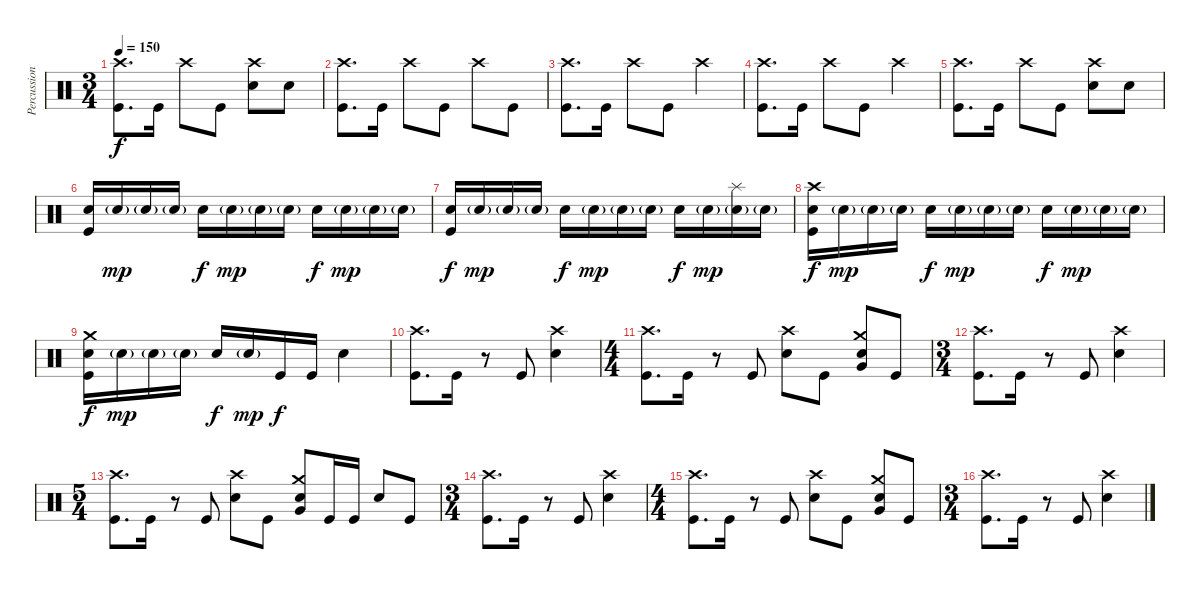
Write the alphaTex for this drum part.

\track ("Percussion" "Percussion") {instrument percussion}
\staff {score}
\articulation defaults
\ts (3 4)
\tempo 150
\clef neutral
\ks c
("Crash high (hit)" "Kick (hit)").8{d dy f} "Kick (hit)".16 "Crash high (hit)".8 "Kick (hit)".8 ("Crash high (hit)" "Snare (hit) 2").8 "Snare (hit) 2".8 |
("Crash high (hit)" "Kick (hit)").8{d} "Kick (hit)".16 "Crash high (hit)".8 "Kick (hit)".8 "Crash high (hit)".8 "Kick (hit)".8 |
("Crash high (hit)" "Kick (hit)").8{d} "Kick (hit)".16 "Crash high (hit)".8 "Kick (hit)".8 "Crash high (hit)".4 |
("Crash high (hit)" "Kick (hit)").8{d} "Kick (hit)".16 "Crash high (hit)".8 "Kick (hit)".8 "Crash high (hit)".4 |
("Crash high (hit)" "Kick (hit)").8{d} "Kick (hit)".16 "Crash high (hit)".8 "Kick (hit)".8 ("Crash high (hit)" "Snare (hit) 2").8 "Snare (hit) 2".8 |
("Snare (hit) 2" "Kick (hit)").16 "Snare (hit) 2"{g}.16{dy mp} "Snare (hit) 2"{g}.16 "Snare (hit) 2"{g}.16 "Snare (hit) 2".16{dy f} "Snare (hit) 2"{g}.16{dy mp} "Snare (hit) 2"{g}.16 "Snare (hit) 2"{g}.16 "Snare (hit) 2".16{dy f} "Snare (hit) 2"{g}.16{dy mp} "Snare (hit) 2"{g}.16 "Snare (hit) 2"{g}.16 |
("Snare (hit) 2" "Kick (hit)").16{dy f} "Snare (hit) 2"{g}.16{dy mp} "Snare (hit) 2"{g}.16 "Snare (hit) 2"{g}.16 "Snare (hit) 2".16{dy f} "Snare (hit) 2"{g}.16{dy mp} "Snare (hit) 2"{g}.16 "Snare (hit) 2"{g}.16 "Snare (hit) 2".16{dy f} "Snare (hit) 2"{g}.16{dy mp} ("Splash (hit)" "Snare (hit) 2"{g}).16 "Snare (hit) 2"{g}.16 |
("Crash high (hit)" "Snare (hit) 2" "Kick (hit)").16{dy f} "Snare (hit) 2"{g}.16{dy mp} "Snare (hit) 2"{g}.16 "Snare (hit) 2"{g}.16 "Snare (hit) 2".16{dy f} "Snare (hit) 2"{g}.16{dy mp} "Snare (hit) 2"{g}.16 "Snare (hit) 2"{g}.16 "Snare (hit) 2".16{dy f} "Snare (hit) 2"{g}.16{dy mp} "Snare (hit) 2"{g}.16 "Snare (hit) 2"{g}.16 |
("Crash medium (hit)" "Snare (hit) 2" "Kick (hit)").16{dy f} "Snare (hit) 2"{g}.16{dy mp} "Snare (hit) 2"{g}.16 "Snare (hit) 2"{g}.16 "Snare (hit) 2".16{dy f} "Snare (hit) 2"{g}.16{dy mp} "Kick (hit)".16{dy f} "Kick (hit)".16 "Snare (hit) 2".4 |
("Crash high (hit)" "Kick (hit)").8{d} "Kick (hit)".16 r.8 "Kick (hit)".8 ("Crash high (hit)" "Snare (hit) 2").4 |
\ts (4 4)
("Crash high (hit)" "Kick (hit)").8{d} "Kick (hit)".16 r.8 "Kick (hit)".8 ("Crash high (hit)" "Snare (hit) 2").8 "Kick (hit)".8 ("Crash medium (hit)" "Very Low Tom (hit)" "Snare (hit) 2").8 "Kick (hit)".8 |
\ts (3 4)
("Crash high (hit)" "Kick (hit)").8{d} "Kick (hit)".16 r.8 "Kick (hit)".8 ("Crash high (hit)" "Snare (hit) 2").4 |
\ts (5 4)
("Crash high (hit)" "Kick (hit)").8{d} "Kick (hit)".16 r.8 "Kick (hit)".8 ("Crash high (hit)" "Snare (hit) 2").8 "Kick (hit)".8 ("Crash medium (hit)" "Very Low Tom (hit)" "Snare (hit) 2").8 "Kick (hit)".16 "Kick (hit)".16 "Snare (hit) 2".8 "Kick (hit)".8 |
\ts (3 4)
("Crash high (hit)" "Kick (hit)").8{d} "Kick (hit)".16 r.8 "Kick (hit)".8 ("Crash high (hit)" "Snare (hit) 2").4 |
\ts (4 4)
("Crash high (hit)" "Kick (hit)").8{d} "Kick (hit)".16 r.8 "Kick (hit)".8 ("Crash high (hit)" "Snare (hit) 2").8 "Kick (hit)".8 ("Crash medium (hit)" "Very Low Tom (hit)" "Snare (hit) 2").8 "Kick (hit)".8 |
\ts (3 4)
("Crash high (hit)" "Kick (hit)").8{d} "Kick (hit)".16 r.8 "Kick (hit)".8 ("Crash high (hit)" "Snare (hit) 2").4
